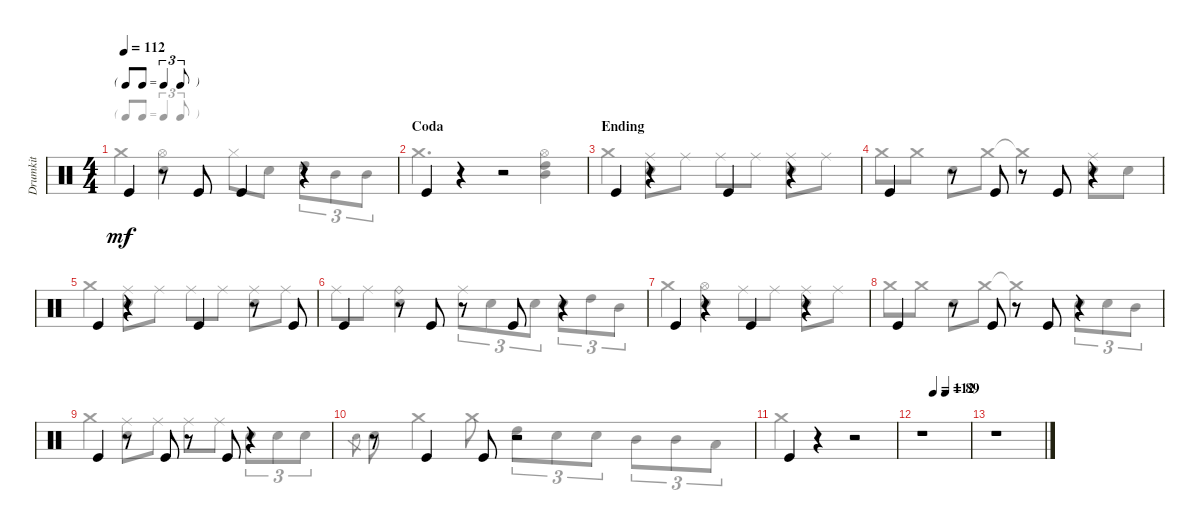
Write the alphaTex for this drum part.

\track ("Drumkit" "Drumkit") {instrument percussion}
\staff {score}
\articulation defaults
\voice
\ts (4 4)
\tf triplet8th
\tempo 112
\clef neutral
\ks c "Kick (hit)".4{dy mf}
r.8 "Kick (hit)".8 "Kick (hit)".4 r.4 |
\section ("" "Coda")
"Kick (hit)".4 r.4 r.2 |
\section ("" "Ending")
"Kick (hit)".4 r.4 "Kick (hit)".4 r.4 |
"Kick (hit)".4 r.8 "Kick (hit)".8 r.8 "Kick (hit)".8 r.4 |
"Kick (hit)".4 r.4 "Kick (hit)".4 r.8 "Kick (hit)".8 |
"Kick (hit)".4 r.8 "Kick (hit)".8 r.8 "Kick (hit)".8 r.4 |
"Kick (hit)".4 r.4 "Kick (hit)".4 r.4 |
"Kick (hit)".4 r.8 "Kick (hit)".8 r.8 "Kick (hit)".8 r.4 |
"Kick (hit)".4 r.8 "Kick (hit)".8 r.8 "Kick (hit)".8 r.4 |
r.8 "Kick (hit)".4 "Kick (hit)".8 r.2 |
"Kick (hit)".4 r.4 r.2 |
\tempo (112 0.25)
\tempo (89 0.5)
r.1 |
r.1
\voice
\clef neutral
\ottava regular
\simile none
\ks c "Crash medium (hit)".4{dy mf}
("Hi-Hat (open)" "Snare (hit) 2").4 "Hi-Hat (closed)".8 "Snare (hit) 2".8 "High Tom (hit)".8{tu (3 2)} "Mid Tom (hit)".8{tu (3 2)} "Mid Tom (hit)".8{tu (3 2)} |
"Crash medium (hit)".2{d} ("Hi-Hat (open)" "High Tom (hit)" "Mid Tom (hit)").4 |
"Crash medium (hit)".4 ("Ride (middle)" "Snare (hit) 2").8 "Ride (middle)".8 "Ride (middle)".8 "Ride (middle)".8 ("Ride (middle)" "Snare (hit) 2").8 "Ride (middle)".8 |
"Crash medium (hit)".8 "Crash medium (hit)".8 "Snare (hit) 2".8 "Crash medium (hit)".8 "Crash medium (hit)"{t}.4 ("Ride (middle)" "Snare (hit) 2").8 "Snare (hit) 2".8 |
"Crash medium (hit)".4 ("Ride (middle)" "Snare (hit) 2").8 "Ride (middle)".8 "Ride (middle)".8 "Ride (middle)".8 ("Ride (middle)" "Snare (hit) 2").8 "Ride (middle)".8 |
"Ride (middle)".8 "Ride (middle)".8 ("Ride (bell)" "Snare (hit) 2").4 "Ride (middle)".8{tu (3 2)} "Snare (hit) 2".8{tu (3 2)} "Snare (hit) 2".8{tu (3 2)} "Snare (hit) 2".8{tu (3 2)} "High Tom (hit)".8{tu (3 2)} "Mid Tom (hit)".8{tu (3 2)} |
"Crash medium (hit)".4 ("Hi-Hat (open)" "Snare (hit) 2").4 "Ride (middle)".8 "Ride (middle)".8 ("Ride (middle)" "Snare (hit) 2").8 "Ride (middle)".8 |
"Crash medium (hit)".8 "Crash medium (hit)".8 "Snare (hit) 2".8 "Crash medium (hit)".8 "Crash medium (hit)"{t}.4 "Snare (hit) 2".8{tu (3 2)} "Snare (hit) 2".8{tu (3 2)} "Mid Tom (hit)".8{tu (3 2)} |
"Crash medium (hit)".4 ("Ride (middle)" "Snare (hit) 2").8 "Ride (middle)".8 "Ride (middle)".8 "Ride (middle)".8 "Snare (hit) 2".8{tu (3 2)} "Snare (hit) 2".8{tu (3 2)} "Snare (hit) 2".8{tu (3 2)} |
"Snare (hit)".8{gr} "Snare (hit) 2".8 "Crash medium (hit)".4 "Crash medium (hit)".8 "High Tom (hit)".8{tu (3 2)} "Snare (hit) 2".8{tu (3 2)} "Snare (hit) 2".8{tu (3 2)} "Mid Tom (hit)".8{tu (3 2)} "Mid Tom (hit)".8{tu (3 2)} "Low Tom (hit)".8{tu (3 2)} |
"Crash medium (hit)".4 r.4 r.2 |
|
